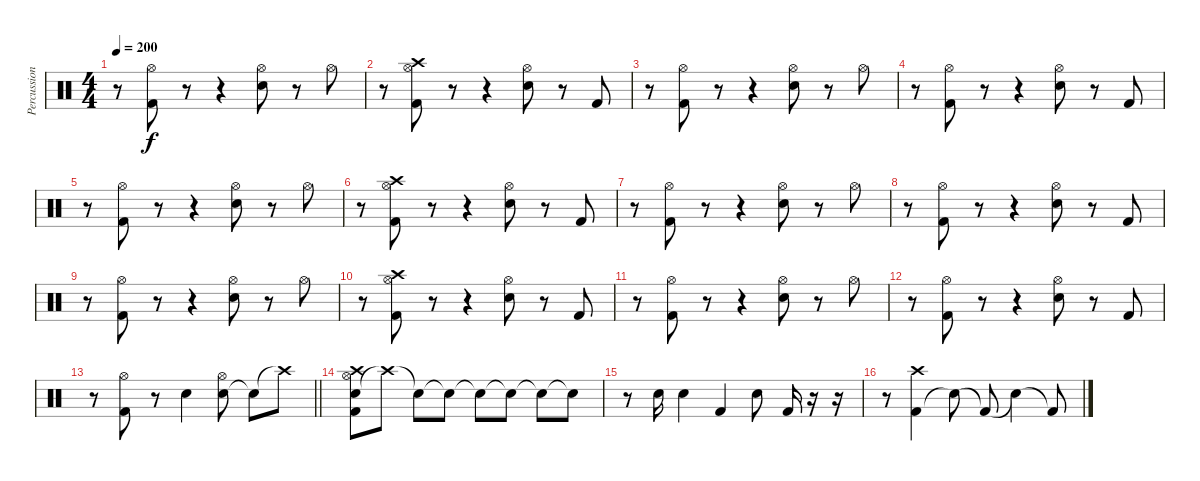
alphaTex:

\track ("Percussion" "Percussion") {instrument percussion}
\staff {score}
\articulation defaults
\ts (4 4)
\tempo 200
\clef neutral
\ks c
r.8{dy f} ("Kick (hit) 2" "Hi-Hat (open)").8 r.8 r.4 ("Snare (hit) 2" "Hi-Hat (open)").8 r.8 "Hi-Hat (open)".8 |
r.8 ("Kick (hit) 2" "Hi-Hat (open)" "Crash high (hit)").8 r.8 r.4 ("Snare (hit) 2" "Hi-Hat (open)").8 r.8 "Kick (hit) 2".8 |
r.8 ("Kick (hit) 2" "Hi-Hat (open)").8 r.8 r.4 ("Snare (hit) 2" "Hi-Hat (open)").8 r.8 "Hi-Hat (open)".8 |
r.8 ("Kick (hit) 2" "Hi-Hat (open)").8 r.8 r.4 ("Snare (hit) 2" "Hi-Hat (open)").8 r.8 "Kick (hit) 2".8 |
r.8 ("Kick (hit) 2" "Hi-Hat (open)").8 r.8 r.4 ("Snare (hit) 2" "Hi-Hat (open)").8 r.8 "Hi-Hat (open)".8 |
r.8 ("Kick (hit) 2" "Hi-Hat (open)" "Crash high (hit)").8 r.8 r.4 ("Snare (hit) 2" "Hi-Hat (open)").8 r.8 "Kick (hit) 2".8 |
r.8 ("Kick (hit) 2" "Hi-Hat (open)").8 r.8 r.4 ("Snare (hit) 2" "Hi-Hat (open)").8 r.8 "Hi-Hat (open)".8 |
r.8 ("Kick (hit) 2" "Hi-Hat (open)").8 r.8 r.4 ("Snare (hit) 2" "Hi-Hat (open)").8 r.8 "Kick (hit) 2".8 |
r.8 ("Kick (hit) 2" "Hi-Hat (open)").8 r.8 r.4 ("Snare (hit) 2" "Hi-Hat (open)").8 r.8 "Hi-Hat (open)".8 |
r.8 ("Kick (hit) 2" "Hi-Hat (open)" "Crash high (hit)").8 r.8 r.4 ("Snare (hit) 2" "Hi-Hat (open)").8 r.8 "Kick (hit) 2".8 |
r.8 ("Kick (hit) 2" "Hi-Hat (open)").8 r.8 r.4 ("Snare (hit) 2" "Hi-Hat (open)").8 r.8 "Hi-Hat (open)".8 |
r.8 ("Kick (hit) 2" "Hi-Hat (open)").8 r.8 r.4 ("Snare (hit) 2" "Hi-Hat (open)").8 r.8 "Kick (hit) 2".8 |
\barLineRight lightlight
r.8 ("Kick (hit) 2" "Hi-Hat (open)").8 r.8 "Snare (hit) 2".4 ("Snare (hit) 2" "Hi-Hat (open)").8 "Snare (hit)"{t}.8 "Crash high (hit)"{t}.8 |
("Snare (hit) 2" "Kick (hit) 2" "Hi-Hat (open)" "Crash high (hit)").8 "Crash high (hit)"{t}.8 "Snare (hit)"{t}.8 "Snare (hit)"{t}.8 "Snare (hit)"{t}.8 "Snare (hit)"{t}.8 "Snare (hit)"{t}.8 "Snare (hit)"{t}.8 |
r.8 "Snare (hit) 2".16 "Snare (hit) 2".4 "Kick (hit) 2".4 "Snare (hit) 2".8 "Kick (hit) 2".16 r.16 r.16 |
r.8 ("Kick (hit) 2" "Crash high (hit)").4 "Snare (hit)"{t}.8 "Kick (hit) 2"{t}.8 "Snare (hit)"{t}.4 "Kick (hit) 2"{t}.8
